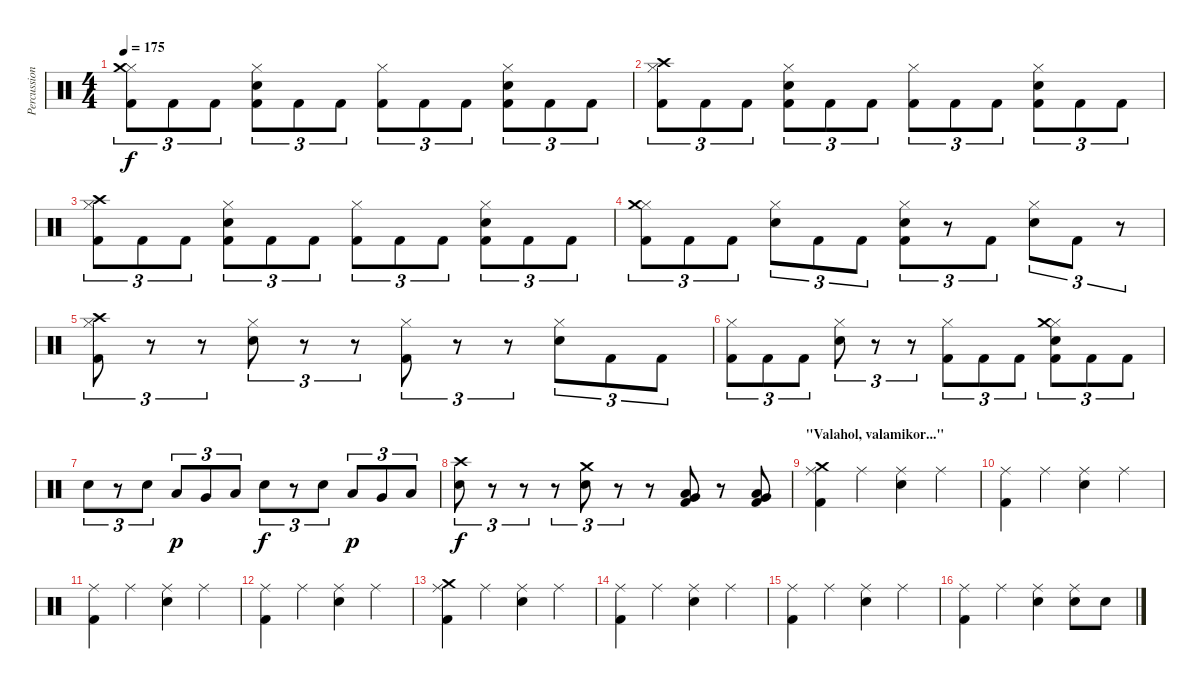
\track ("Percussion" "Percussion") {instrument percussion}
\staff {score}
\articulation defaults
\ts (4 4)
\tempo 175
\clef neutral
\ks c
("Hi-Hat (closed)" "Kick (hit) 2" "Crash medium (hit)").8{tu (3 2) dy f} "Kick (hit) 2".8{tu (3 2)} "Kick (hit) 2".8{tu (3 2)} ("Hi-Hat (closed)" "Kick (hit) 2" "Electric Snare (hit)").8{tu (3 2)} "Kick (hit) 2".8{tu (3 2)} "Kick (hit) 2".8{tu (3 2)} ("Hi-Hat (closed)" "Kick (hit) 2").8{tu (3 2)} "Kick (hit) 2".8{tu (3 2)} "Kick (hit) 2".8{tu (3 2)} ("Hi-Hat (closed)" "Kick (hit) 2" "Electric Snare (hit)").8{tu (3 2)} "Kick (hit) 2".8{tu (3 2)} "Kick (hit) 2".8{tu (3 2)} |
("Hi-Hat (closed)" "Kick (hit) 2" "Crash high (hit)").8{tu (3 2)} "Kick (hit) 2".8{tu (3 2)} "Kick (hit) 2".8{tu (3 2)} ("Hi-Hat (closed)" "Kick (hit) 2" "Electric Snare (hit)").8{tu (3 2)} "Kick (hit) 2".8{tu (3 2)} "Kick (hit) 2".8{tu (3 2)} ("Hi-Hat (closed)" "Kick (hit) 2").8{tu (3 2)} "Kick (hit) 2".8{tu (3 2)} "Kick (hit) 2".8{tu (3 2)} ("Hi-Hat (closed)" "Kick (hit) 2" "Electric Snare (hit)").8{tu (3 2)} "Kick (hit) 2".8{tu (3 2)} "Kick (hit) 2".8{tu (3 2)} |
("Hi-Hat (closed)" "Kick (hit) 2" "Crash high (hit)").8{tu (3 2)} "Kick (hit) 2".8{tu (3 2)} "Kick (hit) 2".8{tu (3 2)} ("Hi-Hat (closed)" "Kick (hit) 2" "Electric Snare (hit)").8{tu (3 2)} "Kick (hit) 2".8{tu (3 2)} "Kick (hit) 2".8{tu (3 2)} ("Hi-Hat (closed)" "Kick (hit) 2").8{tu (3 2)} "Kick (hit) 2".8{tu (3 2)} "Kick (hit) 2".8{tu (3 2)} ("Hi-Hat (closed)" "Kick (hit) 2" "Electric Snare (hit)").8{tu (3 2)} "Kick (hit) 2".8{tu (3 2)} "Kick (hit) 2".8{tu (3 2)} |
("Hi-Hat (closed)" "Kick (hit) 2" "Crash medium (hit)").8{tu (3 2)} "Kick (hit) 2".8{tu (3 2)} "Kick (hit) 2".8{tu (3 2)} ("Hi-Hat (closed)" "Electric Snare (hit)").8{tu (3 2)} "Kick (hit) 2".8{tu (3 2)} "Kick (hit) 2".8{tu (3 2)} ("Hi-Hat (closed)" "Kick (hit) 2" "Electric Snare (hit)").8{tu (3 2)} r.8{tu (3 2)} "Kick (hit) 2".8{tu (3 2)} ("Hi-Hat (closed)" "Electric Snare (hit)").8{tu (3 2)} "Kick (hit) 2".8{tu (3 2)} r.8{tu (3 2)} |
("Hi-Hat (closed)" "Crash high (hit)" "Kick (hit) 2").8{tu (3 2)} r.8{tu (3 2)} r.8{tu (3 2)} ("Hi-Hat (closed)" "Electric Snare (hit)").8{tu (3 2)} r.8{tu (3 2)} r.8{tu (3 2)} ("Hi-Hat (closed)" "Kick (hit) 2").8{tu (3 2)} r.8{tu (3 2)} r.8{tu (3 2)} ("Hi-Hat (closed)" "Electric Snare (hit)").8{tu (3 2)} "Kick (hit) 2".8{tu (3 2)} "Kick (hit) 2".8{tu (3 2)} |
("Hi-Hat (closed)" "Kick (hit) 2").8{tu (3 2)} "Kick (hit) 2".8{tu (3 2)} "Kick (hit) 2".8{tu (3 2)} ("Hi-Hat (closed)" "Electric Snare (hit)").8{tu (3 2)} r.8{tu (3 2)} r.8{tu (3 2)} ("Hi-Hat (closed)" "Kick (hit) 2").8{tu (3 2)} "Kick (hit) 2".8{tu (3 2)} "Kick (hit) 2".8{tu (3 2)} ("Hi-Hat (closed)" "Crash medium (hit)" "Kick (hit) 2" "Electric Snare (hit)").8{tu (3 2)} "Kick (hit) 2".8{tu (3 2)} "Kick (hit) 2".8{tu (3 2)} |
"Electric Snare (hit)".8{tu (3 2)} r.8{tu (3 2)} "Electric Snare (hit)".8{tu (3 2)} "Low Tom (hit)".8{tu (3 2) dy p} "Very Low Tom (hit)".8{tu (3 2)} "Low Floor Tom (hit)".8{tu (3 2)} "Electric Snare (hit)".8{tu (3 2) dy f} r.8{tu (3 2)} "Electric Snare (hit)".8{tu (3 2)} "Low Tom (hit)".8{tu (3 2) dy p} "Very Low Tom (hit)".8{tu (3 2)} "Low Floor Tom (hit)".8{tu (3 2)} |
("Crash high (hit)" "Electric Snare (hit)").8{tu (3 2) dy f} r.8{tu (3 2)} r.8{tu (3 2)} r.8{tu (3 2)} ("Crash medium (hit)" "Electric Snare (hit)").8{tu (3 2)} r.8{tu (3 2)} r.8 ("Very Low Tom (hit)" "Low Tom (hit)" "Kick (hit) 2").8 r.8 ("Very Low Tom (hit)" "Low Tom (hit)" "Kick (hit) 2").8 |
\section ("" "\"Valahol, valamikor...\"")
("Ride (middle)" "Crash medium (hit)" "Kick (hit) 2").4 "Ride (middle)".4 ("Ride (middle)" "Electric Snare (hit)").4 "Ride (middle)".4 |
("Ride (middle)" "Kick (hit) 2").4 "Ride (middle)".4 ("Ride (middle)" "Electric Snare (hit)").4 "Ride (middle)".4 |
("Ride (middle)" "Kick (hit) 2").4 "Ride (middle)".4 ("Ride (middle)" "Electric Snare (hit)").4 "Ride (middle)".4 |
("Ride (middle)" "Kick (hit) 2").4 "Ride (middle)".4 ("Ride (middle)" "Electric Snare (hit)").4 "Ride (middle)".4 |
("Ride (middle)" "Crash medium (hit)" "Kick (hit) 2").4 "Ride (middle)".4 ("Ride (middle)" "Electric Snare (hit)").4 "Ride (middle)".4 |
("Ride (middle)" "Kick (hit) 2").4 "Ride (middle)".4 ("Ride (middle)" "Electric Snare (hit)").4 "Ride (middle)".4 |
("Ride (middle)" "Kick (hit) 2").4 "Ride (middle)".4 ("Ride (middle)" "Electric Snare (hit)").4 "Ride (middle)".4 |
("Ride (middle)" "Kick (hit) 2").4 "Ride (middle)".4 ("Ride (middle)" "Electric Snare (hit)").4 ("Ride (middle)" "Electric Snare (hit)").8 "Electric Snare (hit)".8
